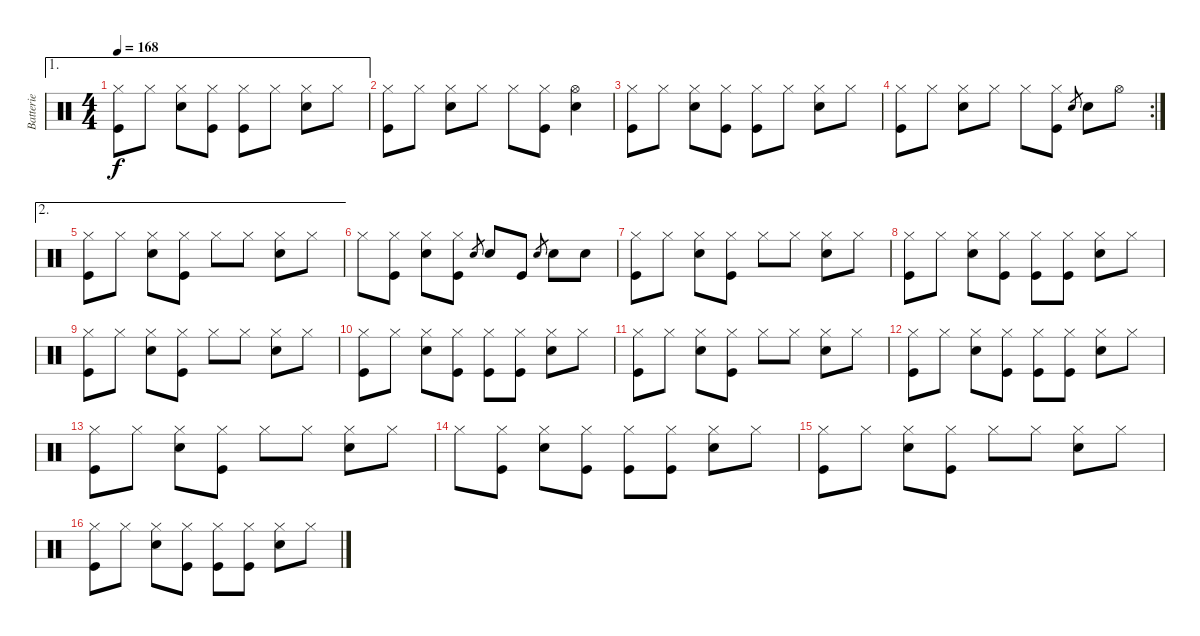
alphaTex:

\track ("Batterie" "Batterie") {instrument percussion}
\staff {score}
\articulation defaults
\ae 1
\ts (4 4)
\tempo 168
\clef neutral
\ks c
("Hi-Hat (closed)" "Kick (hit)").8{dy f} "Hi-Hat (closed)".8 ("Hi-Hat (closed)" "Snare (hit) 2").8 ("Hi-Hat (closed)" "Kick (hit)").8 ("Hi-Hat (closed)" "Kick (hit)").8 "Hi-Hat (closed)".8 ("Hi-Hat (closed)" "Snare (hit) 2").8 "Hi-Hat (closed)".8 |
("Hi-Hat (closed)" "Kick (hit)").8 "Hi-Hat (closed)".8 ("Hi-Hat (closed)" "Snare (hit) 2").8 "Hi-Hat (closed)".8 "Hi-Hat (closed)".8 ("Hi-Hat (closed)" "Kick (hit)").8 ("Hi-Hat (open)" "Snare (hit) 2").4 |
("Hi-Hat (closed)" "Kick (hit)").8 "Hi-Hat (closed)".8 ("Hi-Hat (closed)" "Snare (hit) 2").8 ("Hi-Hat (closed)" "Kick (hit)").8 ("Hi-Hat (closed)" "Kick (hit)").8 "Hi-Hat (closed)".8 ("Hi-Hat (closed)" "Snare (hit) 2").8 "Hi-Hat (closed)".8 |
\rc 2
("Hi-Hat (closed)" "Kick (hit)").8 "Hi-Hat (closed)".8 ("Hi-Hat (closed)" "Snare (hit) 2").8 "Hi-Hat (closed)".8 "Hi-Hat (closed)".8 ("Hi-Hat (closed)" "Kick (hit)").8 "Snare (hit) 2".8{gr} "Snare (hit) 2".8 "Hi-Hat (open)".8 |
\ae 2
("Hi-Hat (closed)" "Kick (hit)").8 "Hi-Hat (closed)".8 ("Hi-Hat (closed)" "Snare (hit) 2").8 ("Hi-Hat (closed)" "Kick (hit)").8 "Hi-Hat (closed)".8 "Hi-Hat (closed)".8 ("Hi-Hat (closed)" "Snare (hit) 2").8 "Hi-Hat (closed)".8 |
"Hi-Hat (closed)".8 ("Hi-Hat (closed)" "Kick (hit)").8 ("Hi-Hat (closed)" "Snare (hit) 2").8 ("Hi-Hat (closed)" "Kick (hit)").8 "Snare (hit) 2".8{gr} "Snare (hit) 2".8 "Kick (hit)".8 "Snare (hit) 2".8{gr} "Snare (hit) 2".8 "Snare (hit) 2".8 |
("Hi-Hat (closed)" "Kick (hit)").8 "Hi-Hat (closed)".8 ("Hi-Hat (closed)" "Snare (hit) 2").8 ("Hi-Hat (closed)" "Kick (hit)").8 "Hi-Hat (closed)".8 "Hi-Hat (closed)".8 ("Hi-Hat (closed)" "Snare (hit) 2").8 "Hi-Hat (closed)".8 |
("Hi-Hat (closed)" "Kick (hit)").8 "Hi-Hat (closed)".8 ("Hi-Hat (closed)" "Snare (hit) 2").8 ("Hi-Hat (closed)" "Kick (hit)").8 ("Hi-Hat (closed)" "Kick (hit)").8 ("Hi-Hat (closed)" "Kick (hit)").8 ("Hi-Hat (closed)" "Snare (hit) 2").8 "Hi-Hat (closed)".8 |
("Hi-Hat (closed)" "Kick (hit)").8 "Hi-Hat (closed)".8 ("Hi-Hat (closed)" "Snare (hit) 2").8 ("Hi-Hat (closed)" "Kick (hit)").8 "Hi-Hat (closed)".8 "Hi-Hat (closed)".8 ("Hi-Hat (closed)" "Snare (hit) 2").8 "Hi-Hat (closed)".8 |
("Hi-Hat (closed)" "Kick (hit)").8 "Hi-Hat (closed)".8 ("Hi-Hat (closed)" "Snare (hit) 2").8 ("Hi-Hat (closed)" "Kick (hit)").8 ("Hi-Hat (closed)" "Kick (hit)").8 ("Hi-Hat (closed)" "Kick (hit)").8 ("Hi-Hat (closed)" "Snare (hit) 2").8 "Hi-Hat (closed)".8 |
("Hi-Hat (closed)" "Kick (hit)").8 "Hi-Hat (closed)".8 ("Hi-Hat (closed)" "Snare (hit) 2").8 ("Hi-Hat (closed)" "Kick (hit)").8 "Hi-Hat (closed)".8 "Hi-Hat (closed)".8 ("Hi-Hat (closed)" "Snare (hit) 2").8 "Hi-Hat (closed)".8 |
("Hi-Hat (closed)" "Kick (hit)").8 "Hi-Hat (closed)".8 ("Hi-Hat (closed)" "Snare (hit) 2").8 ("Hi-Hat (closed)" "Kick (hit)").8 ("Hi-Hat (closed)" "Kick (hit)").8 ("Hi-Hat (closed)" "Kick (hit)").8 ("Hi-Hat (closed)" "Snare (hit) 2").8 "Hi-Hat (closed)".8 |
("Hi-Hat (closed)" "Kick (hit)").8 "Hi-Hat (closed)".8 ("Hi-Hat (closed)" "Snare (hit) 2").8 ("Hi-Hat (closed)" "Kick (hit)").8 "Hi-Hat (closed)".8 "Hi-Hat (closed)".8 ("Hi-Hat (closed)" "Snare (hit) 2").8 "Hi-Hat (closed)".8 |
"Hi-Hat (closed)".8 ("Hi-Hat (closed)" "Kick (hit)").8 ("Hi-Hat (closed)" "Snare (hit) 2").8 ("Hi-Hat (closed)" "Kick (hit)").8 ("Hi-Hat (closed)" "Kick (hit)").8 ("Hi-Hat (closed)" "Kick (hit)").8 ("Hi-Hat (closed)" "Snare (hit) 2").8 "Hi-Hat (closed)".8 |
("Hi-Hat (closed)" "Kick (hit)").8 "Hi-Hat (closed)".8 ("Hi-Hat (closed)" "Snare (hit) 2").8 ("Hi-Hat (closed)" "Kick (hit)").8 "Hi-Hat (closed)".8 "Hi-Hat (closed)".8 ("Hi-Hat (closed)" "Snare (hit) 2").8 "Hi-Hat (closed)".8 |
("Hi-Hat (closed)" "Kick (hit)").8 "Hi-Hat (closed)".8 ("Hi-Hat (closed)" "Snare (hit) 2").8 ("Hi-Hat (closed)" "Kick (hit)").8 ("Hi-Hat (closed)" "Kick (hit)").8 ("Hi-Hat (closed)" "Kick (hit)").8 ("Hi-Hat (closed)" "Snare (hit) 2").8 "Hi-Hat (closed)".8
